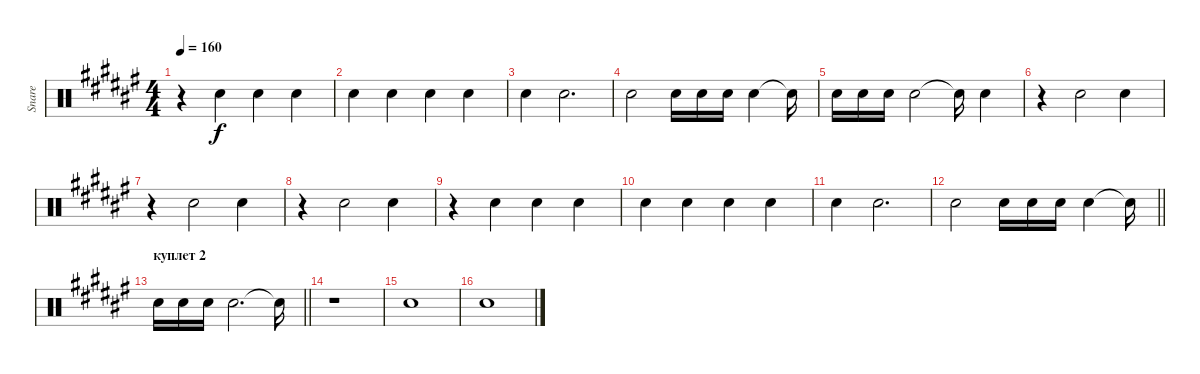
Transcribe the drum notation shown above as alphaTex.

\track ("Snare" "Snare") {instrument percussion}
\staff {score}
\articulation defaults
\ts (4 4)
\tempo 160
\clef neutral
\ks d#minor
r.4{dy f} "Electric Snare (hit)".4 "Electric Snare (hit)".4 "Electric Snare (hit)".4 |
"Electric Snare (hit)".4 "Electric Snare (hit)".4 "Electric Snare (hit)".4 "Electric Snare (hit)".4 |
"Electric Snare (hit)".4 "Electric Snare (hit)".2{d} |
"Electric Snare (hit)".2 "Electric Snare (hit)".16 "Electric Snare (hit)".16 "Electric Snare (hit)".16 "Electric Snare (hit)".4 "Electric Snare (hit)"{t}.16 |
"Electric Snare (hit)".16 "Electric Snare (hit)".16 "Electric Snare (hit)".16 "Electric Snare (hit)".2 "Electric Snare (hit)"{t}.16 "Electric Snare (hit)".4 |
r.4 "Electric Snare (hit)".2 "Electric Snare (hit)".4 |
r.4 "Electric Snare (hit)".2 "Electric Snare (hit)".4 |
r.4 "Electric Snare (hit)".2 "Electric Snare (hit)".4 |
r.4 "Electric Snare (hit)".4 "Electric Snare (hit)".4 "Electric Snare (hit)".4 |
"Electric Snare (hit)".4 "Electric Snare (hit)".4 "Electric Snare (hit)".4 "Electric Snare (hit)".4 |
"Electric Snare (hit)".4 "Electric Snare (hit)".2{d} |
\barLineRight lightlight "Electric Snare (hit)".2 "Electric Snare (hit)".16 "Electric Snare (hit)".16 "Electric Snare (hit)".16 "Electric Snare (hit)".4 "Electric Snare (hit)"{t}.16
|
\section ("" "куплет 2")
\barLineRight lightlight "Electric Snare (hit)".16 "Electric Snare (hit)".16 "Electric Snare (hit)".16 "Electric Snare (hit)".2{d} "Electric Snare (hit)"{t}.16
|
r.1 |
"Electric Snare (hit)".1 |
"Electric Snare (hit)".1
